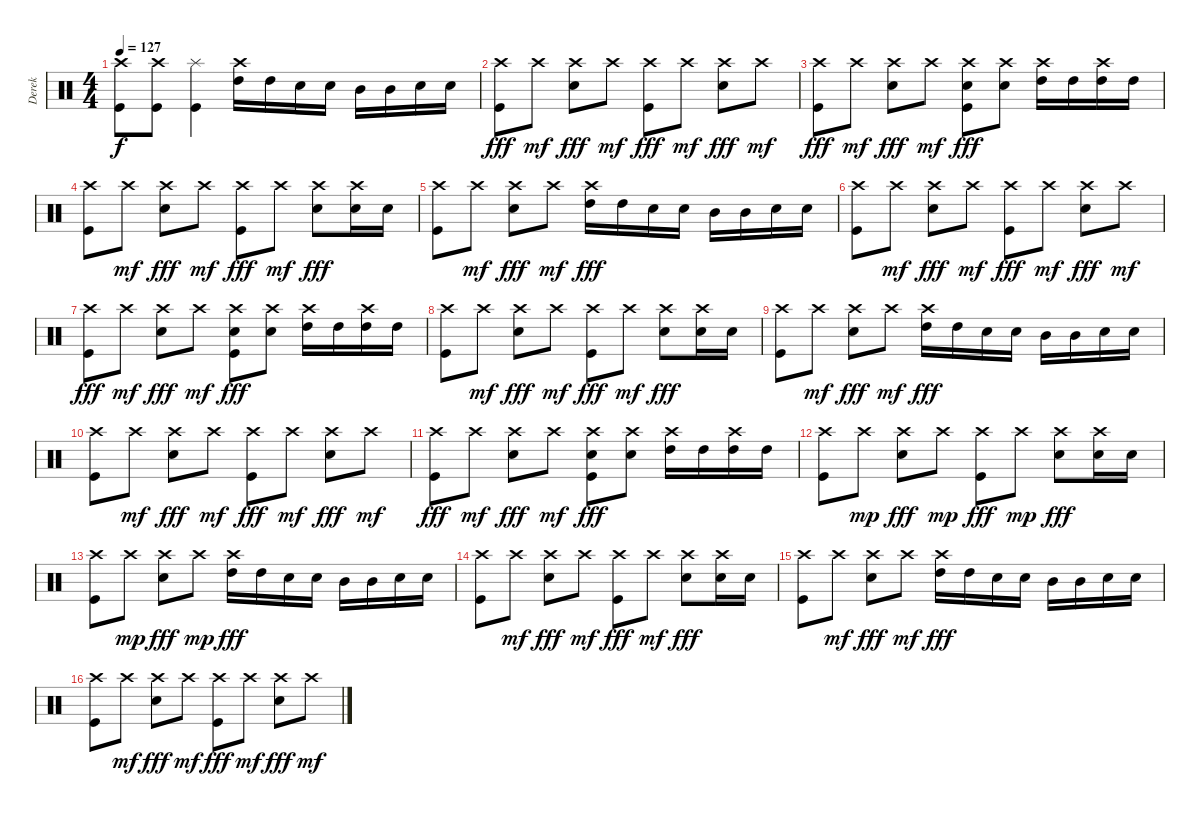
\track ("Derek" "Derek") {instrument percussion}
\staff {score}
\articulation defaults
\ts (4 4)
\tempo 127
\clef neutral
\ks c
("Crash high (hit)" "Kick (hit)").8{dy f} ("Crash high (hit)" "Kick (hit)").8 ("Splash (hit)" "Kick (hit)").4 ("Crash high (hit)" "High Tom (hit)").16 "High Tom (hit)".16 "Snare (hit) 2".16 "Snare (hit) 2".16 "Mid Tom (hit)".16 "Mid Tom (hit)".16 "Snare (hit) 2".16 "Snare (hit) 2".16 |
("Crash high (hit)" "Kick (hit)").8{dy fff} "Crash high (hit)".8{dy mf} ("Crash high (hit)" "Snare (hit) 2").8{dy fff} "Crash high (hit)".8{dy mf} ("Crash high (hit)" "Kick (hit)").8{dy fff} "Crash high (hit)".8{dy mf} ("Crash high (hit)" "Snare (hit) 2").8{dy fff} "Crash high (hit)".8{dy mf} |
("Crash high (hit)" "Kick (hit)").8{dy fff} "Crash high (hit)".8{dy mf} ("Crash high (hit)" "Snare (hit) 2").8{dy fff} "Crash high (hit)".8{dy mf} ("Crash high (hit)" "Snare (hit) 2" "Kick (hit)").8{dy fff} ("Crash high (hit)" "Snare (hit) 2").8 ("Crash high (hit)" "High Tom (hit)").16 "High Tom (hit)".16 ("Crash high (hit)" "High Tom (hit)").16 "High Tom (hit)".16 |
("Crash high (hit)" "Kick (hit)").8 "Crash high (hit)".8{dy mf} ("Crash high (hit)" "Snare (hit) 2").8{dy fff} "Crash high (hit)".8{dy mf} ("Crash high (hit)" "Kick (hit)").8{dy fff} "Crash high (hit)".8{dy mf} ("Crash high (hit)" "Snare (hit) 2").8{dy fff} ("Crash high (hit)" "Snare (hit) 2").16 "Snare (hit) 2".16 |
("Crash high (hit)" "Kick (hit)").8 "Crash high (hit)".8{dy mf} ("Crash high (hit)" "Snare (hit) 2").8{dy fff} "Crash high (hit)".8{dy mf} ("Crash high (hit)" "High Tom (hit)").16{dy fff} "High Tom (hit)".16 "Snare (hit) 2".16 "Snare (hit) 2".16 "Mid Tom (hit)".16 "Mid Tom (hit)".16 "Snare (hit) 2".16 "Snare (hit) 2".16 |
("Crash high (hit)" "Kick (hit)").8 "Crash high (hit)".8{dy mf} ("Crash high (hit)" "Snare (hit) 2").8{dy fff} "Crash high (hit)".8{dy mf} ("Crash high (hit)" "Kick (hit)").8{dy fff} "Crash high (hit)".8{dy mf} ("Crash high (hit)" "Snare (hit) 2").8{dy fff} "Crash high (hit)".8{dy mf} |
("Crash high (hit)" "Kick (hit)").8{dy fff} "Crash high (hit)".8{dy mf} ("Crash high (hit)" "Snare (hit) 2").8{dy fff} "Crash high (hit)".8{dy mf} ("Crash high (hit)" "Snare (hit) 2" "Kick (hit)").8{dy fff} ("Crash high (hit)" "Snare (hit) 2").8 ("Crash high (hit)" "High Tom (hit)").16 "High Tom (hit)".16 ("Crash high (hit)" "High Tom (hit)").16 "High Tom (hit)".16 |
("Crash high (hit)" "Kick (hit)").8 "Crash high (hit)".8{dy mf} ("Crash high (hit)" "Snare (hit) 2").8{dy fff} "Crash high (hit)".8{dy mf} ("Crash high (hit)" "Kick (hit)").8{dy fff} "Crash high (hit)".8{dy mf} ("Crash high (hit)" "Snare (hit) 2").8{dy fff} ("Crash high (hit)" "Snare (hit) 2").16 "Snare (hit) 2".16 |
("Crash high (hit)" "Kick (hit)").8 "Crash high (hit)".8{dy mf} ("Crash high (hit)" "Snare (hit) 2").8{dy fff} "Crash high (hit)".8{dy mf} ("Crash high (hit)" "High Tom (hit)").16{dy fff} "High Tom (hit)".16 "Snare (hit) 2".16 "Snare (hit) 2".16 "Mid Tom (hit)".16 "Mid Tom (hit)".16 "Snare (hit) 2".16 "Snare (hit) 2".16 |
("Crash high (hit)" "Kick (hit)").8 "Crash high (hit)".8{dy mf} ("Crash high (hit)" "Snare (hit) 2").8{dy fff} "Crash high (hit)".8{dy mf} ("Crash high (hit)" "Kick (hit)").8{dy fff} "Crash high (hit)".8{dy mf} ("Crash high (hit)" "Snare (hit) 2").8{dy fff} "Crash high (hit)".8{dy mf} |
("Crash high (hit)" "Kick (hit)").8{dy fff} "Crash high (hit)".8{dy mf} ("Crash high (hit)" "Snare (hit) 2").8{dy fff} "Crash high (hit)".8{dy mf} ("Crash high (hit)" "Snare (hit) 2" "Kick (hit)").8{dy fff} ("Crash high (hit)" "Snare (hit) 2").8 ("Crash high (hit)" "High Tom (hit)").16 "High Tom (hit)".16 ("Crash high (hit)" "High Tom (hit)").16 "High Tom (hit)".16 |
("Crash high (hit)" "Kick (hit)").8 "Crash high (hit)".8{dy mp} ("Crash high (hit)" "Snare (hit) 2").8{dy fff} "Crash high (hit)".8{dy mp} ("Crash high (hit)" "Kick (hit)").8{dy fff} "Crash high (hit)".8{dy mp} ("Crash high (hit)" "Snare (hit) 2").8{dy fff} ("Crash high (hit)" "Snare (hit) 2").16 "Snare (hit) 2".16 |
("Crash high (hit)" "Kick (hit)").8 "Crash high (hit)".8{dy mp} ("Crash high (hit)" "Snare (hit) 2").8{dy fff} "Crash high (hit)".8{dy mp} ("Crash high (hit)" "High Tom (hit)").16{dy fff} "High Tom (hit)".16 "Snare (hit) 2".16 "Snare (hit) 2".16 "Mid Tom (hit)".16 "Mid Tom (hit)".16 "Snare (hit) 2".16 "Snare (hit) 2".16 |
("Crash high (hit)" "Kick (hit)").8 "Crash high (hit)".8{dy mf} ("Crash high (hit)" "Snare (hit) 2").8{dy fff} "Crash high (hit)".8{dy mf} ("Crash high (hit)" "Kick (hit)").8{dy fff} "Crash high (hit)".8{dy mf} ("Crash high (hit)" "Snare (hit) 2").8{dy fff} ("Crash high (hit)" "Snare (hit) 2").16 "Snare (hit) 2".16 |
("Crash high (hit)" "Kick (hit)").8 "Crash high (hit)".8{dy mf} ("Crash high (hit)" "Snare (hit) 2").8{dy fff} "Crash high (hit)".8{dy mf} ("Crash high (hit)" "High Tom (hit)").16{dy fff} "High Tom (hit)".16 "Snare (hit) 2".16 "Snare (hit) 2".16 "Mid Tom (hit)".16 "Mid Tom (hit)".16 "Snare (hit) 2".16 "Snare (hit) 2".16 |
("Crash high (hit)" "Kick (hit)").8 "Crash high (hit)".8{dy mf} ("Crash high (hit)" "Snare (hit) 2").8{dy fff} "Crash high (hit)".8{dy mf} ("Crash high (hit)" "Kick (hit)").8{dy fff} "Crash high (hit)".8{dy mf} ("Crash high (hit)" "Snare (hit) 2").8{dy fff} "Crash high (hit)".8{dy mf}
